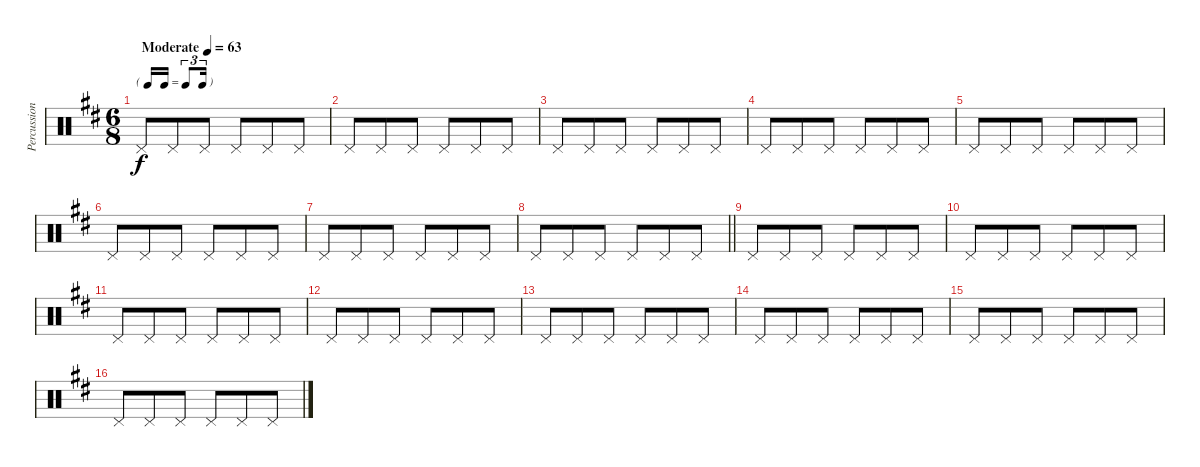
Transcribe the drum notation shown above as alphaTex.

\track ("Percussion" "Percussion") {instrument percussion}
\staff {score}
\articulation defaults
\ts (6 8)
\tf triplet16th
\tempo (63 "Moderate")
\clef neutral
\ks bminor "Pedal Hi-Hat (hit)".8{dy f} "Pedal Hi-Hat (hit)".8 "Pedal Hi-Hat (hit)".8 "Pedal Hi-Hat (hit)".8 "Pedal Hi-Hat (hit)".8 "Pedal Hi-Hat (hit)".8
|
"Pedal Hi-Hat (hit)".8 "Pedal Hi-Hat (hit)".8 "Pedal Hi-Hat (hit)".8 "Pedal Hi-Hat (hit)".8 "Pedal Hi-Hat (hit)".8 "Pedal Hi-Hat (hit)".8 |
"Pedal Hi-Hat (hit)".8 "Pedal Hi-Hat (hit)".8 "Pedal Hi-Hat (hit)".8 "Pedal Hi-Hat (hit)".8 "Pedal Hi-Hat (hit)".8 "Pedal Hi-Hat (hit)".8 |
"Pedal Hi-Hat (hit)".8 "Pedal Hi-Hat (hit)".8 "Pedal Hi-Hat (hit)".8 "Pedal Hi-Hat (hit)".8 "Pedal Hi-Hat (hit)".8 "Pedal Hi-Hat (hit)".8 |
"Pedal Hi-Hat (hit)".8 "Pedal Hi-Hat (hit)".8 "Pedal Hi-Hat (hit)".8 "Pedal Hi-Hat (hit)".8 "Pedal Hi-Hat (hit)".8 "Pedal Hi-Hat (hit)".8 |
"Pedal Hi-Hat (hit)".8 "Pedal Hi-Hat (hit)".8 "Pedal Hi-Hat (hit)".8 "Pedal Hi-Hat (hit)".8 "Pedal Hi-Hat (hit)".8 "Pedal Hi-Hat (hit)".8 |
"Pedal Hi-Hat (hit)".8 "Pedal Hi-Hat (hit)".8 "Pedal Hi-Hat (hit)".8 "Pedal Hi-Hat (hit)".8 "Pedal Hi-Hat (hit)".8 "Pedal Hi-Hat (hit)".8 |
\barLineRight lightlight "Pedal Hi-Hat (hit)".8 "Pedal Hi-Hat (hit)".8 "Pedal Hi-Hat (hit)".8 "Pedal Hi-Hat (hit)".8 "Pedal Hi-Hat (hit)".8 "Pedal Hi-Hat (hit)".8
|
"Pedal Hi-Hat (hit)".8 "Pedal Hi-Hat (hit)".8 "Pedal Hi-Hat (hit)".8 "Pedal Hi-Hat (hit)".8 "Pedal Hi-Hat (hit)".8 "Pedal Hi-Hat (hit)".8 |
"Pedal Hi-Hat (hit)".8 "Pedal Hi-Hat (hit)".8 "Pedal Hi-Hat (hit)".8 "Pedal Hi-Hat (hit)".8 "Pedal Hi-Hat (hit)".8 "Pedal Hi-Hat (hit)".8 |
"Pedal Hi-Hat (hit)".8 "Pedal Hi-Hat (hit)".8 "Pedal Hi-Hat (hit)".8 "Pedal Hi-Hat (hit)".8 "Pedal Hi-Hat (hit)".8 "Pedal Hi-Hat (hit)".8 |
"Pedal Hi-Hat (hit)".8 "Pedal Hi-Hat (hit)".8 "Pedal Hi-Hat (hit)".8 "Pedal Hi-Hat (hit)".8 "Pedal Hi-Hat (hit)".8 "Pedal Hi-Hat (hit)".8 |
"Pedal Hi-Hat (hit)".8 "Pedal Hi-Hat (hit)".8 "Pedal Hi-Hat (hit)".8 "Pedal Hi-Hat (hit)".8 "Pedal Hi-Hat (hit)".8 "Pedal Hi-Hat (hit)".8 |
"Pedal Hi-Hat (hit)".8 "Pedal Hi-Hat (hit)".8 "Pedal Hi-Hat (hit)".8 "Pedal Hi-Hat (hit)".8 "Pedal Hi-Hat (hit)".8 "Pedal Hi-Hat (hit)".8 |
"Pedal Hi-Hat (hit)".8 "Pedal Hi-Hat (hit)".8 "Pedal Hi-Hat (hit)".8 "Pedal Hi-Hat (hit)".8 "Pedal Hi-Hat (hit)".8 "Pedal Hi-Hat (hit)".8 |
"Pedal Hi-Hat (hit)".8 "Pedal Hi-Hat (hit)".8 "Pedal Hi-Hat (hit)".8 "Pedal Hi-Hat (hit)".8 "Pedal Hi-Hat (hit)".8 "Pedal Hi-Hat (hit)".8
